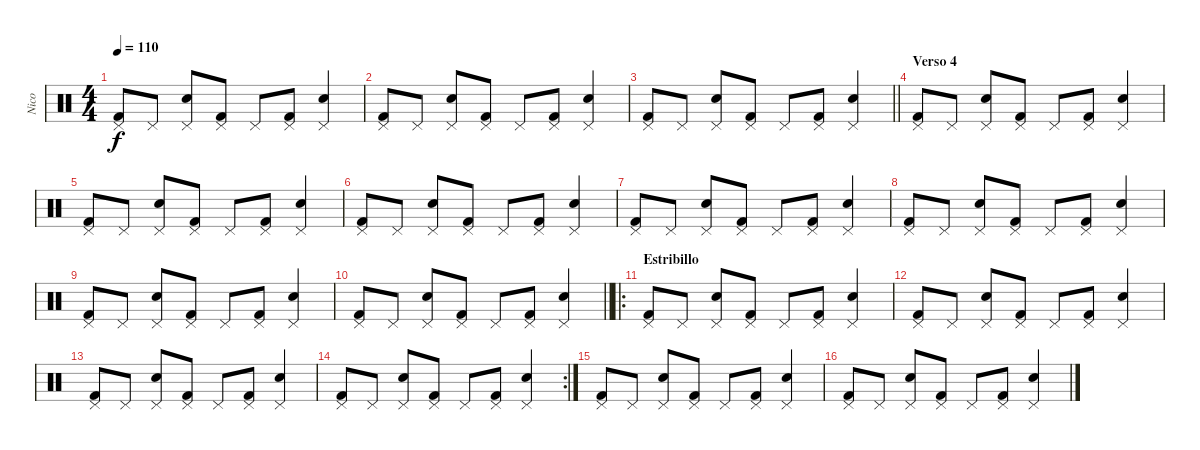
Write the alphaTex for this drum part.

\track ("Nico" "Nico") {instrument percussion}
\staff {score}
\articulation defaults
\ts (4 4)
\tempo 110
\clef neutral
\ks c
("Pedal Hi-Hat (hit)" "Kick (hit) 2").8{dy f} "Pedal Hi-Hat (hit)".8 ("Pedal Hi-Hat (hit)" "Snare (hit) 2").8 ("Pedal Hi-Hat (hit)" "Kick (hit) 2").8 "Pedal Hi-Hat (hit)".8 ("Pedal Hi-Hat (hit)" "Kick (hit) 2").8 ("Pedal Hi-Hat (hit)" "Snare (hit) 2").4 |
("Pedal Hi-Hat (hit)" "Kick (hit) 2").8 "Pedal Hi-Hat (hit)".8 ("Pedal Hi-Hat (hit)" "Snare (hit) 2").8 ("Pedal Hi-Hat (hit)" "Kick (hit) 2").8 "Pedal Hi-Hat (hit)".8 ("Pedal Hi-Hat (hit)" "Kick (hit) 2").8 ("Pedal Hi-Hat (hit)" "Snare (hit) 2").4 |
\barLineRight lightlight
("Pedal Hi-Hat (hit)" "Kick (hit) 2").8 "Pedal Hi-Hat (hit)".8 ("Pedal Hi-Hat (hit)" "Snare (hit) 2").8 ("Pedal Hi-Hat (hit)" "Kick (hit) 2").8 "Pedal Hi-Hat (hit)".8 ("Pedal Hi-Hat (hit)" "Kick (hit) 2").8 ("Pedal Hi-Hat (hit)" "Snare (hit) 2").4 |
\section ("" "Verso 4")
("Pedal Hi-Hat (hit)" "Kick (hit) 2").8 "Pedal Hi-Hat (hit)".8 ("Pedal Hi-Hat (hit)" "Snare (hit) 2").8 ("Pedal Hi-Hat (hit)" "Kick (hit) 2").8 "Pedal Hi-Hat (hit)".8 ("Pedal Hi-Hat (hit)" "Kick (hit) 2").8 ("Pedal Hi-Hat (hit)" "Snare (hit) 2").4 |
("Pedal Hi-Hat (hit)" "Kick (hit) 2").8 "Pedal Hi-Hat (hit)".8 ("Pedal Hi-Hat (hit)" "Snare (hit) 2").8 ("Pedal Hi-Hat (hit)" "Kick (hit) 2").8 "Pedal Hi-Hat (hit)".8 ("Pedal Hi-Hat (hit)" "Kick (hit) 2").8 ("Pedal Hi-Hat (hit)" "Snare (hit) 2").4 |
("Pedal Hi-Hat (hit)" "Kick (hit) 2").8 "Pedal Hi-Hat (hit)".8 ("Pedal Hi-Hat (hit)" "Snare (hit) 2").8 ("Pedal Hi-Hat (hit)" "Kick (hit) 2").8 "Pedal Hi-Hat (hit)".8 ("Pedal Hi-Hat (hit)" "Kick (hit) 2").8 ("Pedal Hi-Hat (hit)" "Snare (hit) 2").4 |
("Pedal Hi-Hat (hit)" "Kick (hit) 2").8 "Pedal Hi-Hat (hit)".8 ("Pedal Hi-Hat (hit)" "Snare (hit) 2").8 ("Pedal Hi-Hat (hit)" "Kick (hit) 2").8 "Pedal Hi-Hat (hit)".8 ("Pedal Hi-Hat (hit)" "Kick (hit) 2").8 ("Pedal Hi-Hat (hit)" "Snare (hit) 2").4 |
("Pedal Hi-Hat (hit)" "Kick (hit) 2").8 "Pedal Hi-Hat (hit)".8 ("Pedal Hi-Hat (hit)" "Snare (hit) 2").8 ("Pedal Hi-Hat (hit)" "Kick (hit) 2").8 "Pedal Hi-Hat (hit)".8 ("Pedal Hi-Hat (hit)" "Kick (hit) 2").8 ("Pedal Hi-Hat (hit)" "Snare (hit) 2").4 |
("Pedal Hi-Hat (hit)" "Kick (hit) 2").8 "Pedal Hi-Hat (hit)".8 ("Pedal Hi-Hat (hit)" "Snare (hit) 2").8 ("Pedal Hi-Hat (hit)" "Kick (hit) 2").8 "Pedal Hi-Hat (hit)".8 ("Pedal Hi-Hat (hit)" "Kick (hit) 2").8 ("Pedal Hi-Hat (hit)" "Snare (hit) 2").4 |
\barLineRight lightlight
("Pedal Hi-Hat (hit)" "Kick (hit) 2").8 "Pedal Hi-Hat (hit)".8 ("Pedal Hi-Hat (hit)" "Snare (hit) 2").8 ("Pedal Hi-Hat (hit)" "Kick (hit) 2").8 "Pedal Hi-Hat (hit)".8 ("Pedal Hi-Hat (hit)" "Kick (hit) 2").8 ("Pedal Hi-Hat (hit)" "Snare (hit) 2").4 |
\ro
\section ("" "Estribillo")
("Pedal Hi-Hat (hit)" "Kick (hit) 2").8 "Pedal Hi-Hat (hit)".8 ("Pedal Hi-Hat (hit)" "Snare (hit) 2").8 ("Pedal Hi-Hat (hit)" "Kick (hit) 2").8 "Pedal Hi-Hat (hit)".8 ("Pedal Hi-Hat (hit)" "Kick (hit) 2").8 ("Pedal Hi-Hat (hit)" "Snare (hit) 2").4 |
("Pedal Hi-Hat (hit)" "Kick (hit) 2").8 "Pedal Hi-Hat (hit)".8 ("Pedal Hi-Hat (hit)" "Snare (hit) 2").8 ("Pedal Hi-Hat (hit)" "Kick (hit) 2").8 "Pedal Hi-Hat (hit)".8 ("Pedal Hi-Hat (hit)" "Kick (hit) 2").8 ("Pedal Hi-Hat (hit)" "Snare (hit) 2").4 |
("Pedal Hi-Hat (hit)" "Kick (hit) 2").8 "Pedal Hi-Hat (hit)".8 ("Pedal Hi-Hat (hit)" "Snare (hit) 2").8 ("Pedal Hi-Hat (hit)" "Kick (hit) 2").8 "Pedal Hi-Hat (hit)".8 ("Pedal Hi-Hat (hit)" "Kick (hit) 2").8 ("Pedal Hi-Hat (hit)" "Snare (hit) 2").4 |
\rc 2
("Pedal Hi-Hat (hit)" "Kick (hit) 2").8 "Pedal Hi-Hat (hit)".8 ("Pedal Hi-Hat (hit)" "Snare (hit) 2").8 ("Pedal Hi-Hat (hit)" "Kick (hit) 2").8 "Pedal Hi-Hat (hit)".8 ("Pedal Hi-Hat (hit)" "Kick (hit) 2").8 ("Pedal Hi-Hat (hit)" "Snare (hit) 2").4 |
("Pedal Hi-Hat (hit)" "Kick (hit) 2").8 "Pedal Hi-Hat (hit)".8 ("Pedal Hi-Hat (hit)" "Snare (hit) 2").8 ("Pedal Hi-Hat (hit)" "Kick (hit) 2").8 "Pedal Hi-Hat (hit)".8 ("Pedal Hi-Hat (hit)" "Kick (hit) 2").8 ("Pedal Hi-Hat (hit)" "Snare (hit) 2").4 |
("Pedal Hi-Hat (hit)" "Kick (hit) 2").8 "Pedal Hi-Hat (hit)".8 ("Pedal Hi-Hat (hit)" "Snare (hit) 2").8 ("Pedal Hi-Hat (hit)" "Kick (hit) 2").8 "Pedal Hi-Hat (hit)".8 ("Pedal Hi-Hat (hit)" "Kick (hit) 2").8 ("Pedal Hi-Hat (hit)" "Snare (hit) 2").4
